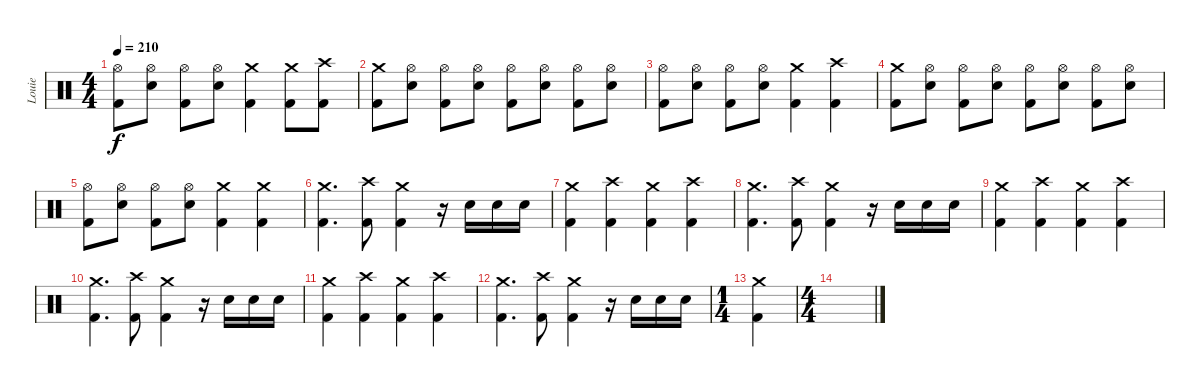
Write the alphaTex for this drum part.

\track ("Louie" "Louie") {instrument percussion}
\staff {score}
\articulation defaults
\ts (4 4)
\tempo 210
\clef neutral
\ks c
("Hi-Hat (open)" "Kick (hit) 2").8{dy f} ("Hi-Hat (open)" "Snare (hit) 2").8 ("Hi-Hat (open)" "Kick (hit) 2").8 ("Hi-Hat (open)" "Snare (hit) 2").8 ("Crash medium (hit)" "Kick (hit) 2").4 ("Crash medium (hit)" "Kick (hit) 2").8 ("Crash high (hit)" "Kick (hit) 2").8 |
("Crash medium (hit)" "Kick (hit) 2").8 ("Hi-Hat (open)" "Snare (hit) 2").8 ("Hi-Hat (open)" "Kick (hit) 2").8 ("Hi-Hat (open)" "Snare (hit) 2").8 ("Hi-Hat (open)" "Kick (hit) 2").8 ("Hi-Hat (open)" "Snare (hit) 2").8 ("Hi-Hat (open)" "Kick (hit) 2").8 ("Hi-Hat (open)" "Snare (hit) 2").8 |
("Hi-Hat (open)" "Kick (hit) 2").8 ("Hi-Hat (open)" "Snare (hit) 2").8 ("Hi-Hat (open)" "Kick (hit) 2").8 ("Hi-Hat (open)" "Snare (hit) 2").8 ("Crash medium (hit)" "Kick (hit) 2").4 ("Crash high (hit)" "Kick (hit) 2").4 |
("Crash medium (hit)" "Kick (hit) 2").8 ("Hi-Hat (open)" "Snare (hit) 2").8 ("Hi-Hat (open)" "Kick (hit) 2").8 ("Hi-Hat (open)" "Snare (hit) 2").8 ("Hi-Hat (open)" "Kick (hit) 2").8 ("Hi-Hat (open)" "Snare (hit) 2").8 ("Hi-Hat (open)" "Kick (hit) 2").8 ("Hi-Hat (open)" "Snare (hit) 2").8 |
("Hi-Hat (open)" "Kick (hit) 2").8 ("Hi-Hat (open)" "Snare (hit) 2").8 ("Hi-Hat (open)" "Kick (hit) 2").8 ("Hi-Hat (open)" "Snare (hit) 2").8 ("Crash medium (hit)" "Kick (hit) 2").4 ("Crash medium (hit)" "Kick (hit) 2").4 |
("Crash medium (hit)" "Kick (hit) 2").4{d} ("Crash high (hit)" "Kick (hit) 2").8 ("Crash medium (hit)" "Kick (hit) 2").4 r.16 "Snare (hit) 2".16 "Snare (hit) 2".16 "Snare (hit) 2".16 |
("Crash medium (hit)" "Kick (hit) 2").4 ("Crash high (hit)" "Kick (hit) 2").4 ("Crash medium (hit)" "Kick (hit) 2").4 ("Crash high (hit)" "Kick (hit) 2").4 |
("Crash medium (hit)" "Kick (hit) 2").4{d} ("Crash high (hit)" "Kick (hit) 2").8 ("Crash medium (hit)" "Kick (hit) 2").4 r.16 "Snare (hit) 2".16 "Snare (hit) 2".16 "Snare (hit) 2".16 |
("Crash medium (hit)" "Kick (hit) 2").4 ("Crash high (hit)" "Kick (hit) 2").4 ("Crash medium (hit)" "Kick (hit) 2").4 ("Crash high (hit)" "Kick (hit) 2").4 |
("Crash medium (hit)" "Kick (hit) 2").4{d} ("Crash high (hit)" "Kick (hit) 2").8 ("Crash medium (hit)" "Kick (hit) 2").4 r.16 "Snare (hit) 2".16 "Snare (hit) 2".16 "Snare (hit) 2".16 |
("Crash medium (hit)" "Kick (hit) 2").4 ("Crash high (hit)" "Kick (hit) 2").4 ("Crash medium (hit)" "Kick (hit) 2").4 ("Crash high (hit)" "Kick (hit) 2").4 |
("Crash medium (hit)" "Kick (hit) 2").4{d} ("Crash high (hit)" "Kick (hit) 2").8 ("Crash medium (hit)" "Kick (hit) 2").4 r.16 "Snare (hit) 2".16 "Snare (hit) 2".16 "Snare (hit) 2".16 |
\ts (1 4)
("Crash medium (hit)" "Kick (hit) 2").4 |
\ts (4 4)
